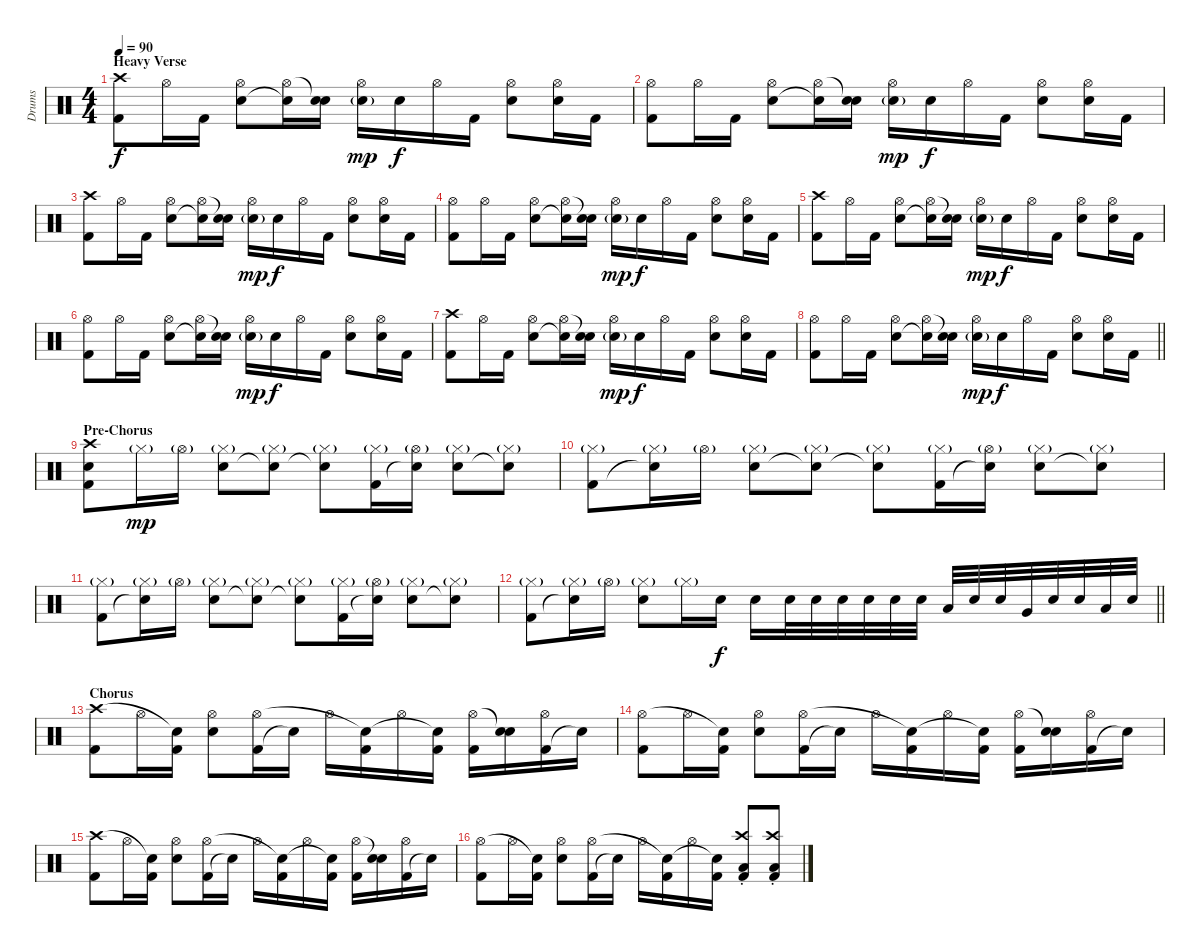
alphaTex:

\track ("Drums" "Drums") {instrument percussion}
\staff {score}
\articulation defaults
\ts (4 4)
\section ("" "Heavy Verse")
\tempo 90
\clef neutral
\ks c
("Kick (hit) 2" "Crash high (hit)").8{dy f} "Hi-Hat (open)".16 "Kick (hit) 2".16 ("Snare (hit) 2" "Hi-Hat (open)").8 ("Snare (hit)"{t} "Hi-Hat (open)").16 ("Snare (hit) 2" "Snare (hit)"{t}).16 ("Snare (hit) 2"{g} "Hi-Hat (open)").16{dy mp} "Snare (hit) 2".16{dy f} "Hi-Hat (open)".16 "Kick (hit) 2".16 ("Snare (hit) 2" "Hi-Hat (open)").8 ("Snare (hit) 2" "Hi-Hat (open)").16 "Kick (hit) 2".16 |
("Kick (hit) 2" "Hi-Hat (open)").8 "Hi-Hat (open)".16 "Kick (hit) 2".16 ("Snare (hit) 2" "Hi-Hat (open)").8 ("Snare (hit)"{t} "Hi-Hat (open)").16 ("Snare (hit) 2" "Snare (hit)"{t}).16 ("Snare (hit) 2"{g} "Hi-Hat (open)").16{dy mp} "Snare (hit) 2".16{dy f} "Hi-Hat (open)".16 "Kick (hit) 2".16 ("Snare (hit) 2" "Hi-Hat (open)").8 ("Snare (hit) 2" "Hi-Hat (open)").16 "Kick (hit) 2".16 |
("Kick (hit) 2" "Crash high (hit)").8 "Hi-Hat (open)".16 "Kick (hit) 2".16 ("Snare (hit) 2" "Hi-Hat (open)").8 ("Snare (hit)"{t} "Hi-Hat (open)").16 ("Snare (hit) 2" "Snare (hit)"{t}).16 ("Snare (hit) 2"{g} "Hi-Hat (open)").16{dy mp} "Snare (hit) 2".16{dy f} "Hi-Hat (open)".16 "Kick (hit) 2".16 ("Snare (hit) 2" "Hi-Hat (open)").8 ("Snare (hit) 2" "Hi-Hat (open)").16 "Kick (hit) 2".16 |
("Kick (hit) 2" "Hi-Hat (open)").8 "Hi-Hat (open)".16 "Kick (hit) 2".16 ("Snare (hit) 2" "Hi-Hat (open)").8 ("Snare (hit)"{t} "Hi-Hat (open)").16 ("Snare (hit) 2" "Snare (hit)"{t}).16 ("Snare (hit) 2"{g} "Hi-Hat (open)").16{dy mp} "Snare (hit) 2".16{dy f} "Hi-Hat (open)".16 "Kick (hit) 2".16 ("Snare (hit) 2" "Hi-Hat (open)").8 ("Snare (hit) 2" "Hi-Hat (open)").16 "Kick (hit) 2".16 |
("Kick (hit) 2" "Crash high (hit)").8 "Hi-Hat (open)".16 "Kick (hit) 2".16 ("Snare (hit) 2" "Hi-Hat (open)").8 ("Snare (hit)"{t} "Hi-Hat (open)").16 ("Snare (hit) 2" "Snare (hit)"{t}).16 ("Snare (hit) 2"{g} "Hi-Hat (open)").16{dy mp} "Snare (hit) 2".16{dy f} "Hi-Hat (open)".16 "Kick (hit) 2".16 ("Snare (hit) 2" "Hi-Hat (open)").8 ("Snare (hit) 2" "Hi-Hat (open)").16 "Kick (hit) 2".16 |
("Kick (hit) 2" "Hi-Hat (open)").8 "Hi-Hat (open)".16 "Kick (hit) 2".16 ("Snare (hit) 2" "Hi-Hat (open)").8 ("Snare (hit)"{t} "Hi-Hat (open)").16 ("Snare (hit) 2" "Snare (hit)"{t}).16 ("Snare (hit) 2"{g} "Hi-Hat (open)").16{dy mp} "Snare (hit) 2".16{dy f} "Hi-Hat (open)".16 "Kick (hit) 2".16 ("Snare (hit) 2" "Hi-Hat (open)").8 ("Snare (hit) 2" "Hi-Hat (open)").16 "Kick (hit) 2".16 |
("Kick (hit) 2" "Crash high (hit)").8 "Hi-Hat (open)".16 "Kick (hit) 2".16 ("Snare (hit) 2" "Hi-Hat (open)").8 ("Snare (hit)"{t} "Hi-Hat (open)").16 ("Snare (hit) 2" "Snare (hit)"{t}).16 ("Snare (hit) 2"{g} "Hi-Hat (open)").16{dy mp} "Snare (hit) 2".16{dy f} "Hi-Hat (open)".16 "Kick (hit) 2".16 ("Snare (hit) 2" "Hi-Hat (open)").8 ("Snare (hit) 2" "Hi-Hat (open)").16 "Kick (hit) 2".16 |
\barLineRight lightlight
("Kick (hit) 2" "Hi-Hat (open)").8 "Hi-Hat (open)".16 "Kick (hit) 2".16 ("Snare (hit) 2" "Hi-Hat (open)").8 ("Snare (hit)"{t} "Hi-Hat (open)").16 ("Snare (hit) 2" "Snare (hit)"{t}).16 ("Snare (hit) 2"{g} "Hi-Hat (open)").16{dy mp} "Snare (hit) 2".16{dy f} "Hi-Hat (open)".16 "Kick (hit) 2".16 ("Snare (hit) 2" "Hi-Hat (open)").8 ("Snare (hit) 2" "Hi-Hat (open)").16 "Kick (hit) 2".16 |
\section ("" "Pre-Chorus")
("Kick (hit) 2" "Electric Snare (hit)" "Crash high (hit)").8 "Hi-Hat (closed)"{g}.16{dy mp} "Hi-Hat (open)"{g}.16 ("Snare (hit) 2" "Hi-Hat (closed)"{g}).8 ("Snare (hit)"{t} "Hi-Hat (closed)"{g}).8 ("Snare (hit)"{t} "Hi-Hat (closed)"{g}).8 ("Kick (hit) 2" "Hi-Hat (closed)"{g}).16 ("Snare (hit)"{t} "Hi-Hat (open)"{g}).16 ("Snare (hit) 2" "Hi-Hat (closed)"{g}).8 ("Snare (hit)"{t} "Hi-Hat (closed)"{g}).8 |
("Kick (hit) 2" "Hi-Hat (closed)"{g}).8 ("Snare (hit)"{t} "Hi-Hat (closed)"{g}).16 "Hi-Hat (open)"{g}.16 ("Snare (hit) 2" "Hi-Hat (closed)"{g}).8 ("Snare (hit)"{t} "Hi-Hat (closed)"{g}).8 ("Snare (hit)"{t} "Hi-Hat (closed)"{g}).8 ("Kick (hit) 2" "Hi-Hat (closed)"{g}).16 ("Snare (hit)"{t} "Hi-Hat (open)"{g}).16 ("Snare (hit) 2" "Hi-Hat (closed)"{g}).8 ("Snare (hit)"{t} "Hi-Hat (closed)"{g}).8 |
("Kick (hit) 2" "Hi-Hat (closed)"{g}).8 ("Snare (hit)"{t} "Hi-Hat (closed)"{g}).16 "Hi-Hat (open)"{g}.16 ("Snare (hit) 2" "Hi-Hat (closed)"{g}).8 ("Snare (hit)"{t} "Hi-Hat (closed)"{g}).8 ("Snare (hit)"{t} "Hi-Hat (closed)"{g}).8 ("Kick (hit) 2" "Hi-Hat (closed)"{g}).16 ("Snare (hit)"{t} "Hi-Hat (open)"{g}).16 ("Snare (hit) 2" "Hi-Hat (closed)"{g}).8 ("Snare (hit)"{t} "Hi-Hat (closed)"{g}).8 |
\barLineRight lightlight
("Kick (hit) 2" "Hi-Hat (closed)"{g}).8 ("Snare (hit)"{t} "Hi-Hat (closed)"{g}).16 "Hi-Hat (open)"{g}.16 ("Snare (hit) 2" "Hi-Hat (closed)"{g}).8 "Hi-Hat (closed)"{g}.16 "Snare (hit) 2".16{dy f} "Snare (hit) 2".16 "Snare (hit) 2".32 "Snare (hit) 2".32 "Snare (hit) 2".32 "Snare (hit) 2".32 "Snare (hit) 2".32 "Snare (hit) 2".32 "Low Tom (hit)".32 "Snare (hit) 2".32 "Snare (hit) 2".32 "Very Low Tom (hit)".32 "Snare (hit) 2".32 "Snare (hit) 2".32 "Low Floor Tom (hit)".32 "Snare (hit) 2".32 |
\section ("" "Chorus")
("Kick (hit) 2" "Crash high (hit)").8 "Hi-Hat (open)".16 ("Kick (hit) 2" "Snare (hit)"{t}).16 ("Snare (hit) 2" "Hi-Hat (open)").8 ("Kick (hit) 2" "Hi-Hat (open)").16 "Snare (hit)"{t}.16 "Hi-Hat (open)".16 ("Kick (hit) 2" "Snare (hit)"{t}).16 "Hi-Hat (open)".16 ("Kick (hit) 2" "Snare (hit)"{t}).16 ("Kick (hit) 2" "Hi-Hat (open)").16 ("Snare (hit) 2" "Snare (hit)"{t}).16 ("Kick (hit) 2" "Hi-Hat (open)").16 "Snare (hit)"{t}.16 |
("Kick (hit) 2" "Hi-Hat (open)").8 "Hi-Hat (open)".16 ("Kick (hit) 2" "Snare (hit)"{t}).16 ("Snare (hit) 2" "Hi-Hat (open)").8 ("Kick (hit) 2" "Hi-Hat (open)").16 "Snare (hit)"{t}.16 "Hi-Hat (open)".16 ("Kick (hit) 2" "Snare (hit)"{t}).16 "Hi-Hat (open)".16 ("Kick (hit) 2" "Snare (hit)"{t}).16 ("Kick (hit) 2" "Hi-Hat (open)").16 ("Snare (hit) 2" "Snare (hit)"{t}).16 ("Kick (hit) 2" "Hi-Hat (open)").16 "Snare (hit)"{t}.16 |
("Kick (hit) 2" "Crash high (hit)").8 "Hi-Hat (open)".16 ("Kick (hit) 2" "Snare (hit)"{t}).16 ("Snare (hit) 2" "Hi-Hat (open)").8 ("Kick (hit) 2" "Hi-Hat (open)").16 "Snare (hit)"{t}.16 "Hi-Hat (open)".16 ("Kick (hit) 2" "Snare (hit)"{t}).16 "Hi-Hat (open)".16 ("Kick (hit) 2" "Snare (hit)"{t}).16 ("Kick (hit) 2" "Hi-Hat (open)").16 ("Snare (hit) 2" "Snare (hit)"{t}).16 ("Kick (hit) 2" "Hi-Hat (open)").16 "Snare (hit)"{t}.16 |
("Kick (hit) 2" "Hi-Hat (open)").8 "Hi-Hat (open)".16 ("Kick (hit) 2" "Snare (hit)"{t}).16 ("Snare (hit) 2" "Hi-Hat (open)").8 ("Kick (hit) 2" "Hi-Hat (open)").16 "Snare (hit)"{t}.16 "Hi-Hat (open)".16 ("Kick (hit) 2" "Snare (hit)"{t}).16 "Hi-Hat (open)".16 ("Kick (hit) 2" "Snare (hit)"{t}).16 ("Kick (hit) 2"{st} "Crash high (hit)"{st} "Low Floor Tom (hit)"{st}).8 ("Kick (hit) 2"{st} "Crash high (hit)"{st} "Low Floor Tom (hit)"{st}).8
